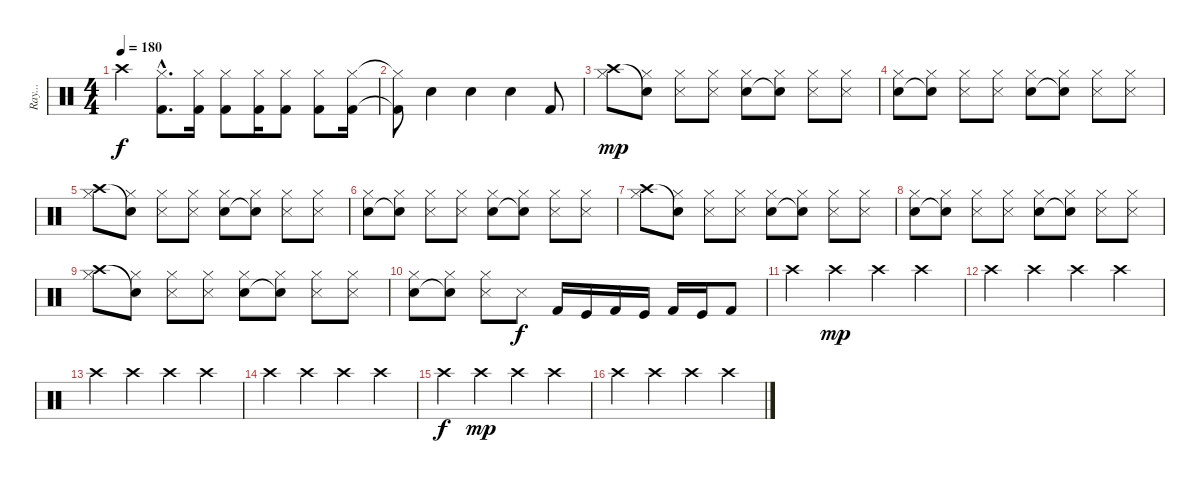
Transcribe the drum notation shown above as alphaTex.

\track ("Ray..." "Ray...") {instrument percussion}
\staff {score}
\articulation defaults
\ts (4 4)
\tempo 180
\clef neutral
\ks c "Crash high (hit)".4{dy f}
("Kick (hit) 2"{hac} "Hi-Hat (closed)"{hac}).8{d} ("Kick (hit) 2" "Hi-Hat (closed)").16 ("Kick (hit) 2" "Hi-Hat (closed)").8 ("Kick (hit) 2" "Hi-Hat (closed)").16 ("Kick (hit) 2" "Hi-Hat (closed)").8 ("Kick (hit) 2" "Hi-Hat (closed)").8 ("Kick (hit) 2" "Hi-Hat (closed)").16 |
("Kick (hit) 2"{t} "Hi-Hat (closed)"{t}).8 "Snare (hit) 2".4 "Snare (hit) 2".4 "Snare (hit) 2".4 "Kick (hit) 2".8 |
("Crash high (hit)" "Hi-Hat (closed)").8{dy mp} ("Snare (hit)"{t} "Hi-Hat (closed)").8 ("Snare (side stick) 3" "Hi-Hat (closed)").8 ("Snare (side stick) 3" "Hi-Hat (closed)").8 ("Snare (hit) 2" "Hi-Hat (closed)").8 ("Snare (hit)"{t} "Hi-Hat (closed)").8 ("Snare (side stick) 3" "Hi-Hat (closed)").8 ("Snare (side stick) 3" "Hi-Hat (closed)").8 |
("Snare (hit) 2" "Hi-Hat (closed)").8 ("Snare (hit)"{t} "Hi-Hat (closed)").8 ("Snare (side stick) 3" "Hi-Hat (closed)").8 ("Snare (side stick) 3" "Hi-Hat (closed)").8 ("Snare (hit) 2" "Hi-Hat (closed)").8 ("Snare (hit)"{t} "Hi-Hat (closed)").8 ("Snare (side stick) 3" "Hi-Hat (closed)").8 ("Snare (side stick) 3" "Hi-Hat (closed)").8 |
("Crash high (hit)" "Hi-Hat (closed)").8 ("Snare (hit)"{t} "Hi-Hat (closed)").8 ("Snare (side stick) 3" "Hi-Hat (closed)").8 ("Snare (side stick) 3" "Hi-Hat (closed)").8 ("Snare (hit) 2" "Hi-Hat (closed)").8 ("Snare (hit)"{t} "Hi-Hat (closed)").8 ("Snare (side stick) 3" "Hi-Hat (closed)").8 ("Snare (side stick) 3" "Hi-Hat (closed)").8 |
("Snare (hit) 2" "Hi-Hat (closed)").8 ("Snare (hit)"{t} "Hi-Hat (closed)").8 ("Snare (side stick) 3" "Hi-Hat (closed)").8 ("Snare (side stick) 3" "Hi-Hat (closed)").8 ("Snare (hit) 2" "Hi-Hat (closed)").8 ("Snare (hit)"{t} "Hi-Hat (closed)").8 ("Snare (side stick) 3" "Hi-Hat (closed)").8 ("Snare (side stick) 3" "Hi-Hat (closed)").8 |
("Crash high (hit)" "Hi-Hat (closed)").8 ("Snare (hit)"{t} "Hi-Hat (closed)").8 ("Snare (side stick) 3" "Hi-Hat (closed)").8 ("Snare (side stick) 3" "Hi-Hat (closed)").8 ("Snare (hit) 2" "Hi-Hat (closed)").8 ("Snare (hit)"{t} "Hi-Hat (closed)").8 ("Snare (side stick) 3" "Hi-Hat (closed)").8 ("Snare (side stick) 3" "Hi-Hat (closed)").8 |
("Snare (hit) 2" "Hi-Hat (closed)").8 ("Snare (hit)"{t} "Hi-Hat (closed)").8 ("Snare (side stick) 3" "Hi-Hat (closed)").8 ("Snare (side stick) 3" "Hi-Hat (closed)").8 ("Snare (hit) 2" "Hi-Hat (closed)").8 ("Snare (hit)"{t} "Hi-Hat (closed)").8 ("Snare (side stick) 3" "Hi-Hat (closed)").8 ("Snare (side stick) 3" "Hi-Hat (closed)").8 |
("Crash high (hit)" "Hi-Hat (closed)").8 ("Snare (hit)"{t} "Hi-Hat (closed)").8 ("Snare (side stick) 3" "Hi-Hat (closed)").8 ("Snare (side stick) 3" "Hi-Hat (closed)").8 ("Snare (hit) 2" "Hi-Hat (closed)").8 ("Snare (hit)"{t} "Hi-Hat (closed)").8 ("Snare (side stick) 3" "Hi-Hat (closed)").8 ("Snare (side stick) 3" "Hi-Hat (closed)").8 |
("Snare (hit) 2" "Hi-Hat (closed)").8 ("Snare (hit)"{t} "Hi-Hat (closed)").8 ("Snare (side stick) 3" "Hi-Hat (closed)").8 "Snare (side stick) 3".8{dy f} "Kick (hit) 2".16 "Kick (hit)".16 "Kick (hit) 2".16 "Kick (hit)".16 "Kick (hit) 2".16 "Kick (hit)".16 "Kick (hit) 2".8 |
"Crash high (hit)".4 "Crash high (hit)".4{dy mp} "Crash high (hit)".4 "Crash high (hit)".4 |
"Crash high (hit)".4 "Crash high (hit)".4 "Crash high (hit)".4 "Crash high (hit)".4 |
"Crash high (hit)".4 "Crash high (hit)".4 "Crash high (hit)".4 "Crash high (hit)".4 |
"Crash high (hit)".4 "Crash high (hit)".4 "Crash high (hit)".4 "Crash high (hit)".4 |
"Crash high (hit)".4{dy f} "Crash high (hit)".4{dy mp} "Crash high (hit)".4 "Crash high (hit)".4 |
"Crash high (hit)".4 "Crash high (hit)".4 "Crash high (hit)".4 "Crash high (hit)".4
